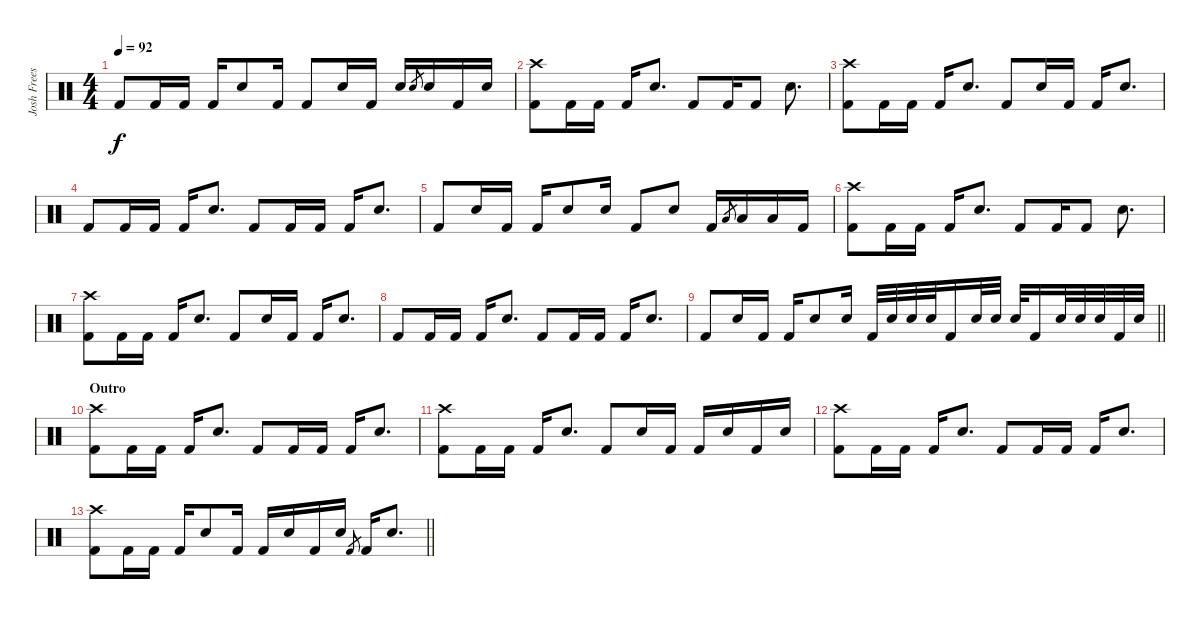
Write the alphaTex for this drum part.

\track ("Josh Freese (Studio Drummer)" "Josh Frees") {instrument percussion}
\staff {score}
\articulation defaults
\ts (4 4)
\tempo 92
\clef neutral
\ks c "Kick (hit) 2".8{dy f} "Kick (hit) 2".16 "Kick (hit) 2".16 "Kick (hit) 2".16 "Electric Snare (hit)".8 "Kick (hit) 2".16 "Kick (hit) 2".8 "Electric Snare (hit)".16 "Kick (hit) 2".16 "Electric Snare (hit)".16 "Electric Snare (hit)".8{gr} "Electric Snare (hit)".16 "Kick (hit) 2".16 "Electric Snare (hit)".16
|
("Crash high (hit)" "Kick (hit) 2").8 "Kick (hit) 2".16 "Kick (hit) 2".16 "Kick (hit) 2".16 "Electric Snare (hit)".8{d} "Kick (hit) 2".8 "Kick (hit) 2".16 "Kick (hit) 2".8 "Electric Snare (hit)".8{d} |
("Crash high (hit)" "Kick (hit) 2").8 "Kick (hit) 2".16 "Kick (hit) 2".16 "Kick (hit) 2".16 "Electric Snare (hit)".8{d} "Kick (hit) 2".8 "Electric Snare (hit)".16 "Kick (hit) 2".16 "Kick (hit) 2".16 "Electric Snare (hit)".8{d} |
"Kick (hit) 2".8 "Kick (hit) 2".16 "Kick (hit) 2".16 "Kick (hit) 2".16 "Electric Snare (hit)".8{d} "Kick (hit) 2".8 "Kick (hit) 2".16 "Kick (hit) 2".16 "Kick (hit) 2".16 "Electric Snare (hit)".8{d} |
"Kick (hit) 2".8 "Electric Snare (hit)".16 "Kick (hit) 2".16 "Kick (hit) 2".16 "Electric Snare (hit)".8 "Electric Snare (hit)".16 "Kick (hit) 2".8 "Electric Snare (hit)".8 "Kick (hit) 2".16 "Low Tom (hit)".8{gr} "Low Tom (hit)".16 "Low Tom (hit)".16 "Kick (hit) 2".16 |
("Crash high (hit)" "Kick (hit) 2").8 "Kick (hit) 2".16 "Kick (hit) 2".16 "Kick (hit) 2".16 "Electric Snare (hit)".8{d} "Kick (hit) 2".8 "Kick (hit) 2".16 "Kick (hit) 2".8 "Electric Snare (hit)".8{d} |
("Crash high (hit)" "Kick (hit) 2").8 "Kick (hit) 2".16 "Kick (hit) 2".16 "Kick (hit) 2".16 "Electric Snare (hit)".8{d} "Kick (hit) 2".8 "Electric Snare (hit)".16 "Kick (hit) 2".16 "Kick (hit) 2".16 "Electric Snare (hit)".8{d} |
"Kick (hit) 2".8 "Kick (hit) 2".16 "Kick (hit) 2".16 "Kick (hit) 2".16 "Electric Snare (hit)".8{d} "Kick (hit) 2".8 "Kick (hit) 2".16 "Kick (hit) 2".16 "Kick (hit) 2".16 "Electric Snare (hit)".8{d} |
\barLineRight lightlight "Kick (hit) 2".8 "Electric Snare (hit)".16 "Kick (hit) 2".16 "Kick (hit) 2".16 "Electric Snare (hit)".8 "Electric Snare (hit)".16 "Kick (hit) 2".32 "Electric Snare (hit)".32 "Electric Snare (hit)".32 "Electric Snare (hit)".32 "Kick (hit) 2".16 "Electric Snare (hit)".32 "Electric Snare (hit)".32 "Electric Snare (hit)".32 "Kick (hit) 2".16 "Electric Snare (hit)".32 "Electric Snare (hit)".32 "Electric Snare (hit)".32 "Kick (hit) 2".32 "Electric Snare (hit)".32
|
\section ("" "Outro")
("Crash high (hit)" "Kick (hit) 2").8 "Kick (hit) 2".16 "Kick (hit) 2".16 "Kick (hit) 2".16 "Electric Snare (hit)".8{d} "Kick (hit) 2".8 "Kick (hit) 2".16 "Kick (hit) 2".16 "Kick (hit) 2".16 "Electric Snare (hit)".8{d} |
("Crash high (hit)" "Kick (hit) 2").8 "Kick (hit) 2".16 "Kick (hit) 2".16 "Kick (hit) 2".16 "Electric Snare (hit)".8{d} "Kick (hit) 2".8 "Electric Snare (hit)".16 "Kick (hit) 2".16 "Kick (hit) 2".16 "Electric Snare (hit)".16 "Kick (hit) 2".16 "Electric Snare (hit)".16 |
("Crash high (hit)" "Kick (hit) 2").8 "Kick (hit) 2".16 "Kick (hit) 2".16 "Kick (hit) 2".16 "Electric Snare (hit)".8{d} "Kick (hit) 2".8 "Kick (hit) 2".16 "Kick (hit) 2".16 "Kick (hit) 2".16 "Electric Snare (hit)".8{d} |
\barLineRight lightlight
("Crash high (hit)" "Kick (hit) 2").8 "Kick (hit) 2".16 "Kick (hit) 2".16 "Kick (hit) 2".16 "Electric Snare (hit)".8 "Kick (hit) 2".16 "Kick (hit) 2".16 "Electric Snare (hit)".16 "Kick (hit) 2".16 "Electric Snare (hit)".16 "Kick (hit) 2".8{gr} "Kick (hit) 2".16 "Electric Snare (hit)".8{d}
